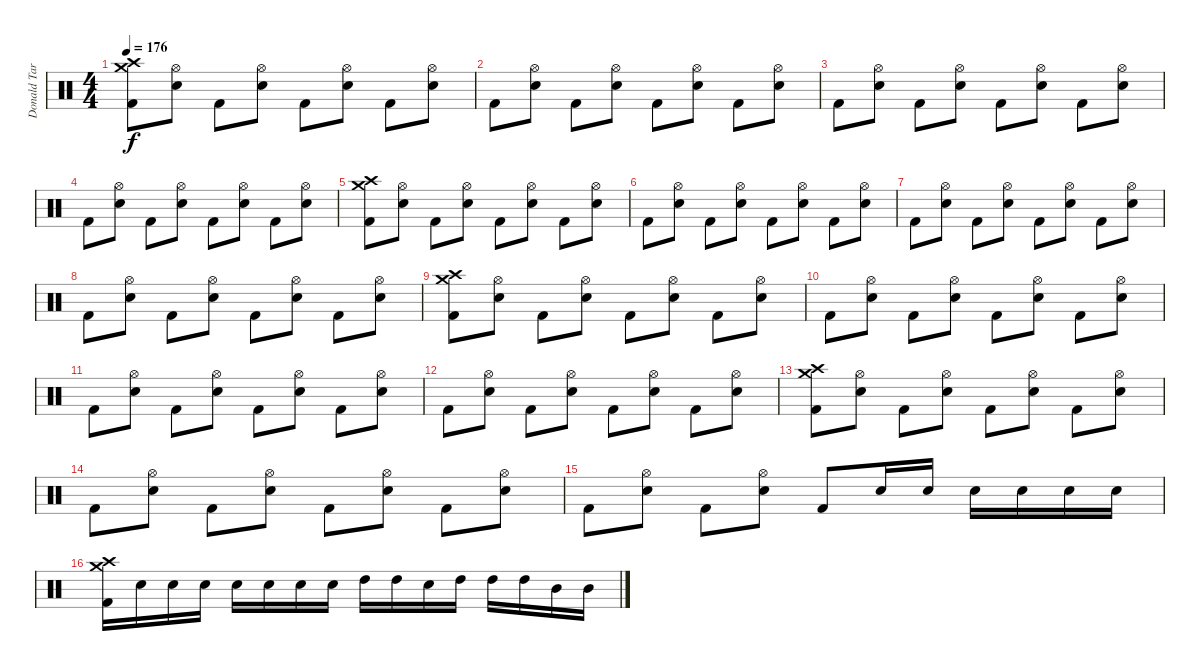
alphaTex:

\track ("Donald Tardy (Drums)" "Donald Tar") {instrument percussion}
\staff {score}
\articulation defaults
\ts (4 4)
\tempo 176
\clef neutral
\ks c
("Kick (hit) 2" "Crash medium (hit)" "Crash high (hit)").8{dy f} ("Electric Snare (hit)" "Hi-Hat (open)").8 "Kick (hit) 2".8 ("Electric Snare (hit)" "Hi-Hat (open)").8 "Kick (hit) 2".8 ("Electric Snare (hit)" "Hi-Hat (open)").8 "Kick (hit) 2".8 ("Electric Snare (hit)" "Hi-Hat (open)").8 |
"Kick (hit) 2".8 ("Electric Snare (hit)" "Hi-Hat (open)").8 "Kick (hit) 2".8 ("Electric Snare (hit)" "Hi-Hat (open)").8 "Kick (hit) 2".8 ("Electric Snare (hit)" "Hi-Hat (open)").8 "Kick (hit) 2".8 ("Electric Snare (hit)" "Hi-Hat (open)").8 |
"Kick (hit) 2".8 ("Electric Snare (hit)" "Hi-Hat (open)").8 "Kick (hit) 2".8 ("Electric Snare (hit)" "Hi-Hat (open)").8 "Kick (hit) 2".8 ("Electric Snare (hit)" "Hi-Hat (open)").8 "Kick (hit) 2".8 ("Electric Snare (hit)" "Hi-Hat (open)").8 |
"Kick (hit) 2".8 ("Electric Snare (hit)" "Hi-Hat (open)").8 "Kick (hit) 2".8 ("Electric Snare (hit)" "Hi-Hat (open)").8 "Kick (hit) 2".8 ("Electric Snare (hit)" "Hi-Hat (open)").8 "Kick (hit) 2".8 ("Electric Snare (hit)" "Hi-Hat (open)").8 |
("Kick (hit) 2" "Crash medium (hit)" "Crash high (hit)").8 ("Electric Snare (hit)" "Hi-Hat (open)").8 "Kick (hit) 2".8 ("Electric Snare (hit)" "Hi-Hat (open)").8 "Kick (hit) 2".8 ("Electric Snare (hit)" "Hi-Hat (open)").8 "Kick (hit) 2".8 ("Electric Snare (hit)" "Hi-Hat (open)").8 |
"Kick (hit) 2".8 ("Electric Snare (hit)" "Hi-Hat (open)").8 "Kick (hit) 2".8 ("Electric Snare (hit)" "Hi-Hat (open)").8 "Kick (hit) 2".8 ("Electric Snare (hit)" "Hi-Hat (open)").8 "Kick (hit) 2".8 ("Electric Snare (hit)" "Hi-Hat (open)").8 |
"Kick (hit) 2".8 ("Electric Snare (hit)" "Hi-Hat (open)").8 "Kick (hit) 2".8 ("Electric Snare (hit)" "Hi-Hat (open)").8 "Kick (hit) 2".8 ("Electric Snare (hit)" "Hi-Hat (open)").8 "Kick (hit) 2".8 ("Electric Snare (hit)" "Hi-Hat (open)").8 |
"Kick (hit) 2".8 ("Electric Snare (hit)" "Hi-Hat (open)").8 "Kick (hit) 2".8 ("Electric Snare (hit)" "Hi-Hat (open)").8 "Kick (hit) 2".8 ("Electric Snare (hit)" "Hi-Hat (open)").8 "Kick (hit) 2".8 ("Electric Snare (hit)" "Hi-Hat (open)").8 |
("Kick (hit) 2" "Crash medium (hit)" "Crash high (hit)").8 ("Electric Snare (hit)" "Hi-Hat (open)").8 "Kick (hit) 2".8 ("Electric Snare (hit)" "Hi-Hat (open)").8 "Kick (hit) 2".8 ("Electric Snare (hit)" "Hi-Hat (open)").8 "Kick (hit) 2".8 ("Electric Snare (hit)" "Hi-Hat (open)").8 |
"Kick (hit) 2".8 ("Electric Snare (hit)" "Hi-Hat (open)").8 "Kick (hit) 2".8 ("Electric Snare (hit)" "Hi-Hat (open)").8 "Kick (hit) 2".8 ("Electric Snare (hit)" "Hi-Hat (open)").8 "Kick (hit) 2".8 ("Electric Snare (hit)" "Hi-Hat (open)").8 |
"Kick (hit) 2".8 ("Electric Snare (hit)" "Hi-Hat (open)").8 "Kick (hit) 2".8 ("Electric Snare (hit)" "Hi-Hat (open)").8 "Kick (hit) 2".8 ("Electric Snare (hit)" "Hi-Hat (open)").8 "Kick (hit) 2".8 ("Electric Snare (hit)" "Hi-Hat (open)").8 |
"Kick (hit) 2".8 ("Electric Snare (hit)" "Hi-Hat (open)").8 "Kick (hit) 2".8 ("Electric Snare (hit)" "Hi-Hat (open)").8 "Kick (hit) 2".8 ("Electric Snare (hit)" "Hi-Hat (open)").8 "Kick (hit) 2".8 ("Electric Snare (hit)" "Hi-Hat (open)").8 |
("Kick (hit) 2" "Crash medium (hit)" "Crash high (hit)").8 ("Electric Snare (hit)" "Hi-Hat (open)").8 "Kick (hit) 2".8 ("Electric Snare (hit)" "Hi-Hat (open)").8 "Kick (hit) 2".8 ("Electric Snare (hit)" "Hi-Hat (open)").8 "Kick (hit) 2".8 ("Electric Snare (hit)" "Hi-Hat (open)").8 |
"Kick (hit) 2".8 ("Electric Snare (hit)" "Hi-Hat (open)").8 "Kick (hit) 2".8 ("Electric Snare (hit)" "Hi-Hat (open)").8 "Kick (hit) 2".8 ("Electric Snare (hit)" "Hi-Hat (open)").8 "Kick (hit) 2".8 ("Electric Snare (hit)" "Hi-Hat (open)").8 |
"Kick (hit) 2".8 ("Electric Snare (hit)" "Hi-Hat (open)").8 "Kick (hit) 2".8 ("Electric Snare (hit)" "Hi-Hat (open)").8 "Kick (hit) 2".8 "Electric Snare (hit)".16 "Electric Snare (hit)".16 "Electric Snare (hit)".16 "Electric Snare (hit)".16 "Electric Snare (hit)".16 "Electric Snare (hit)".16 |
("Kick (hit) 2" "Crash medium (hit)" "Crash high (hit)").16 "Electric Snare (hit)".16 "Electric Snare (hit)".16 "Electric Snare (hit)".16 "Electric Snare (hit)".16 "Electric Snare (hit)".16 "Electric Snare (hit)".16 "Electric Snare (hit)".16 "High Tom (hit)".16 "High Tom (hit)".16 "Electric Snare (hit)".16 "High Tom (hit)".16 "High Tom (hit)".16 "High Tom (hit)".16 "Mid Tom (hit)".16 "Mid Tom (hit)".16
